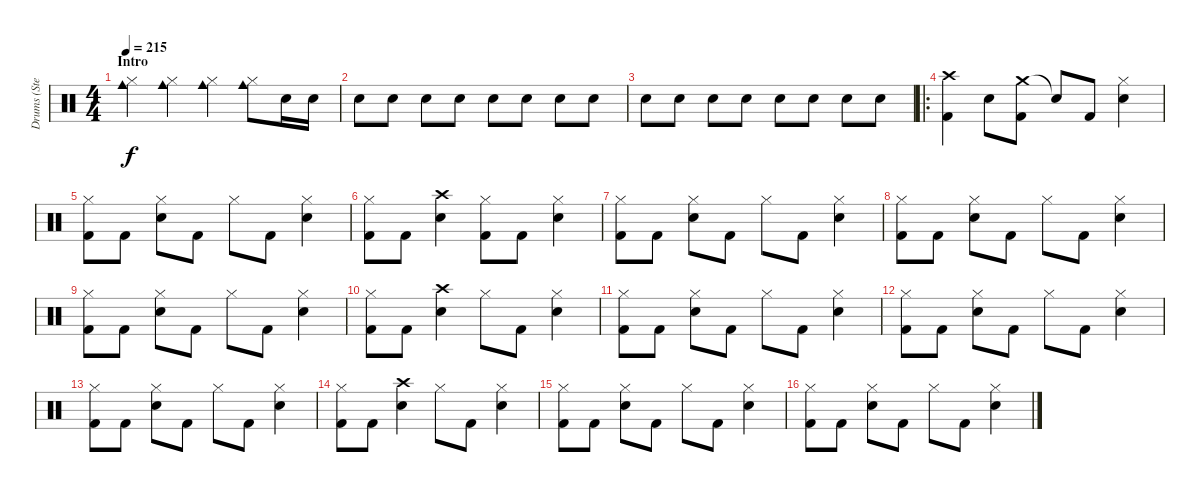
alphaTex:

\track ("Drums (Steven)" "Drums (Ste") {instrument percussion}
\staff {score}
\articulation defaults
\ts (4 4)
\section ("" "Intro")
\tempo 215
\clef neutral
\ks c
("Cowbell medium (hit)" "Hi-Hat (closed)").4{dy f} ("Cowbell medium (hit)" "Hi-Hat (closed)").4 ("Cowbell medium (hit)" "Hi-Hat (closed)").4 ("Cowbell medium (hit)" "Hi-Hat (closed)").8 "Snare (hit) 2".16 "Snare (hit) 2".16 |
"Snare (hit) 2".8 "Snare (hit) 2".8 "Snare (hit) 2".8 "Snare (hit) 2".8 "Snare (hit) 2".8 "Snare (hit) 2".8 "Snare (hit) 2".8 "Snare (hit) 2".8 |
"Snare (hit) 2".8 "Snare (hit) 2".8 "Snare (hit) 2".8 "Snare (hit) 2".8 "Snare (hit) 2".8 "Snare (hit) 2".8 "Snare (hit) 2".8 "Snare (hit) 2".8 |
\ro
("Crash high (hit)" "Kick (hit) 2").4 "Snare (hit) 2".8 ("Crash medium (hit)" "Kick (hit) 2").8 "Snare (hit)"{t}.8 "Kick (hit) 2".8 ("Hi-Hat (closed)" "Snare (hit) 2").4 |
("Hi-Hat (closed)" "Kick (hit) 2").8 "Kick (hit) 2".8 ("Hi-Hat (closed)" "Snare (hit) 2").8 "Kick (hit) 2".8 "Hi-Hat (closed)".8 "Kick (hit) 2".8 ("Hi-Hat (closed)" "Snare (hit) 2").4 |
("Hi-Hat (closed)" "Kick (hit) 2").8 "Kick (hit) 2".8 ("Crash high (hit)" "Snare (hit) 2").4 ("Hi-Hat (closed)" "Kick (hit) 2").8 "Kick (hit) 2".8 ("Hi-Hat (closed)" "Snare (hit) 2").4 |
("Hi-Hat (closed)" "Kick (hit) 2").8 "Kick (hit) 2".8 ("Hi-Hat (closed)" "Snare (hit) 2").8 "Kick (hit) 2".8 "Hi-Hat (closed)".8 "Kick (hit) 2".8 ("Hi-Hat (closed)" "Snare (hit) 2").4 |
("Hi-Hat (closed)" "Kick (hit) 2").8 "Kick (hit) 2".8 ("Hi-Hat (closed)" "Snare (hit) 2").8 "Kick (hit) 2".8 "Hi-Hat (closed)".8 "Kick (hit) 2".8 ("Hi-Hat (closed)" "Snare (hit) 2").4 |
("Hi-Hat (closed)" "Kick (hit) 2").8 "Kick (hit) 2".8 ("Hi-Hat (closed)" "Snare (hit) 2").8 "Kick (hit) 2".8 "Hi-Hat (closed)".8 "Kick (hit) 2".8 ("Hi-Hat (closed)" "Snare (hit) 2").4 |
("Hi-Hat (closed)" "Kick (hit) 2").8 "Kick (hit) 2".8 ("Crash high (hit)" "Snare (hit) 2").4 "Hi-Hat (closed)".8 "Kick (hit) 2".8 ("Hi-Hat (closed)" "Snare (hit) 2").4 |
("Hi-Hat (closed)" "Kick (hit) 2").8 "Kick (hit) 2".8 ("Hi-Hat (closed)" "Snare (hit) 2").8 "Kick (hit) 2".8 "Hi-Hat (closed)".8 "Kick (hit) 2".8 ("Hi-Hat (closed)" "Snare (hit) 2").4 |
("Hi-Hat (closed)" "Kick (hit) 2").8 "Kick (hit) 2".8 ("Hi-Hat (closed)" "Snare (hit) 2").8 "Kick (hit) 2".8 "Hi-Hat (closed)".8 "Kick (hit) 2".8 ("Hi-Hat (closed)" "Snare (hit) 2").4 |
("Hi-Hat (closed)" "Kick (hit) 2").8 "Kick (hit) 2".8 ("Hi-Hat (closed)" "Snare (hit) 2").8 "Kick (hit) 2".8 "Hi-Hat (closed)".8 "Kick (hit) 2".8 ("Hi-Hat (closed)" "Snare (hit) 2").4 |
("Hi-Hat (closed)" "Kick (hit) 2").8 "Kick (hit) 2".8 ("Crash high (hit)" "Snare (hit) 2").4 "Hi-Hat (closed)".8 "Kick (hit) 2".8 ("Hi-Hat (closed)" "Snare (hit) 2").4 |
("Hi-Hat (closed)" "Kick (hit) 2").8 "Kick (hit) 2".8 ("Hi-Hat (closed)" "Snare (hit) 2").8 "Kick (hit) 2".8 "Hi-Hat (closed)".8 "Kick (hit) 2".8 ("Hi-Hat (closed)" "Snare (hit) 2").4 |
("Hi-Hat (closed)" "Kick (hit) 2").8 "Kick (hit) 2".8 ("Hi-Hat (closed)" "Snare (hit) 2").8 "Kick (hit) 2".8 "Hi-Hat (closed)".8 "Kick (hit) 2".8 ("Hi-Hat (closed)" "Snare (hit) 2").4
